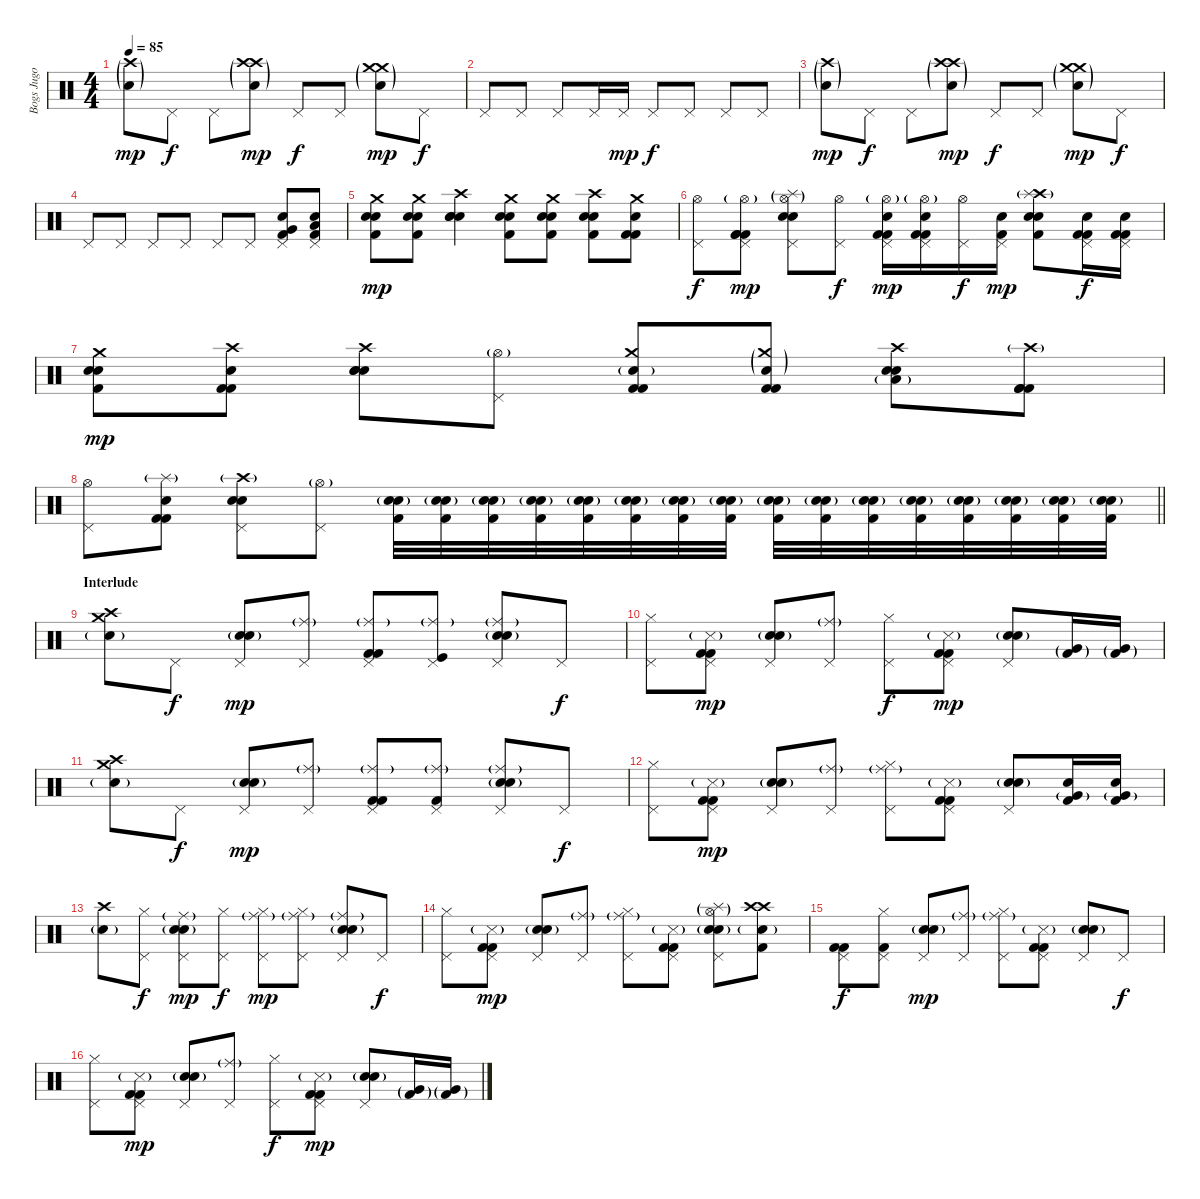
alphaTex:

\track ("Bogs Jugo" "Bogs Jugo") {instrument percussion}
\staff {score}
\articulation defaults
\ts (4 4)
\tempo 85
\clef neutral
\ks c
("Crash high (hit)"{g} "Electric Snare (hit)"{g}).8{dy mp} "Pedal Hi-Hat (hit)".8{dy f} "Pedal Hi-Hat (hit)".8 ("Crash high (hit)"{g} "Electric Snare (hit)"{g} "Crash high (hit)"{g}).8{dy mp} "Pedal Hi-Hat (hit)".8{dy f} "Pedal Hi-Hat (hit)".8 ("Crash medium (hit)"{g} "Electric Snare (hit)"{g} "Crash medium (hit)"{g}).8{dy mp} "Pedal Hi-Hat (hit)".8{dy f} |
"Pedal Hi-Hat (hit)".8 "Pedal Hi-Hat (hit)".8 "Pedal Hi-Hat (hit)".8 "Pedal Hi-Hat (hit)".16 "Pedal Hi-Hat (hit)".16{dy mp} "Pedal Hi-Hat (hit)".8{dy f} "Pedal Hi-Hat (hit)".8 "Pedal Hi-Hat (hit)".8 "Pedal Hi-Hat (hit)".8 |
("Crash high (hit)"{g} "Electric Snare (hit)"{g}).8{dy mp} "Pedal Hi-Hat (hit)".8{dy f} "Pedal Hi-Hat (hit)".8 ("Crash high (hit)"{g} "Electric Snare (hit)"{g} "Crash high (hit)"{g}).8{dy mp} "Pedal Hi-Hat (hit)".8{dy f} "Pedal Hi-Hat (hit)".8 ("Crash medium (hit)"{g} "Electric Snare (hit)"{g} "Crash medium (hit)"{g}).8{dy mp} "Pedal Hi-Hat (hit)".8{dy f} |
"Pedal Hi-Hat (hit)".8 "Pedal Hi-Hat (hit)".8 "Pedal Hi-Hat (hit)".8 "Pedal Hi-Hat (hit)".8 "Pedal Hi-Hat (hit)".8 "Pedal Hi-Hat (hit)".8 ("Pedal Hi-Hat (hit)" "Electric Snare (hit)" "Very Low Tom (hit)" "Kick (hit) 2").8 ("Pedal Hi-Hat (hit)" "Electric Snare (hit)" "Low Floor Tom (hit)" "Kick (hit) 2").8 |
("Crash medium (hit)" "Electric Snare (hit)" "Snare (hit) 2" "Kick (hit) 2").8{dy mp} ("Crash medium (hit)" "Electric Snare (hit)" "Snare (hit) 2" "Kick (hit) 2").8 ("Crash high (hit)" "Electric Snare (hit)" "Snare (hit) 2" "Snare (hit) 2").4 ("Crash medium (hit)" "Electric Snare (hit)" "Snare (hit) 2" "Kick (hit) 2").8 ("Crash medium (hit)" "Electric Snare (hit)" "Snare (hit) 2" "Kick (hit) 2").8 ("Crash high (hit)" "Electric Snare (hit)" "Snare (hit) 2" "Kick (hit) 2").8 ("Crash medium (hit)" "Kick (hit) 2" "Kick (hit) 2" "Electric Snare (hit)").8 |
("Pedal Hi-Hat (hit)" "Hi-Hat (open)").8{dy f} ("Pedal Hi-Hat (hit)" "Hi-Hat (open)"{g} "Kick (hit) 2" "Kick (hit) 2" "Kick (hit) 2").8{dy mp} ("Pedal Hi-Hat (hit)" "Hi-Hat (open)"{g} "Electric Snare (hit)" "Snare (hit) 2" "Splash (hit)"{g}).8 ("Pedal Hi-Hat (hit)" "Hi-Hat (open)").8{dy f} ("Pedal Hi-Hat (hit)" "Hi-Hat (open)"{g} "Kick (hit) 2" "Kick (hit) 2" "Electric Snare (hit)").16{dy mp} ("Pedal Hi-Hat (hit)" "Hi-Hat (open)"{g} "Kick (hit) 2" "Kick (hit) 2" "Electric Snare (hit)").16 ("Pedal Hi-Hat (hit)" "Hi-Hat (open)").16{dy f} ("Pedal Hi-Hat (hit)" "Electric Snare (hit)" "Kick (hit) 2").16{dy mp} ("Crash high (hit)" "Electric Snare (hit)" "Snare (hit) 2" "Kick (hit) 2" "Splash (hit)"{g}).8 ("Pedal Hi-Hat (hit)" "Electric Snare (hit)" "Kick (hit) 2" "Kick (hit) 2").16{dy f} ("Pedal Hi-Hat (hit)" "Electric Snare (hit)" "Kick (hit) 2" "Kick (hit) 2").16 |
("Crash medium (hit)" "Electric Snare (hit)" "Snare (hit) 2" "Kick (hit) 2").8{dy mp} ("Crash high (hit)" "Kick (hit) 2" "Kick (hit) 2" "Electric Snare (hit)").8 ("Crash high (hit)" "Electric Snare (hit)" "Snare (hit) 2" "Snare (hit) 2").8 ("Pedal Hi-Hat (hit)" "Hi-Hat (open)"{g}).8 ("Crash medium (hit)" "Kick (hit) 2" "Kick (hit) 2" "Electric Snare (hit)"{g}).8 ("Crash medium (hit)"{g} "Kick (hit) 2" "Kick (hit) 2" "Electric Snare (hit)"{g}).8 ("Crash high (hit)" "Electric Snare (hit)" "Electric Snare (hit)" "Low Tom (hit)"{g}).8 ("Kick (hit) 2" "Kick (hit) 2" "Kick (hit) 2" "Crash high (hit)"{g}).8 |
\barLineRight lightlight
("Pedal Hi-Hat (hit)" "Hi-Hat (open)").8 ("Electric Snare (hit)" "Kick (hit) 2" "Kick (hit) 2" "Splash (hit)"{g}).8 ("Pedal Hi-Hat (hit)" "Electric Snare (hit)" "Snare (hit) 2" "Crash high (hit)"{g}).8 ("Pedal Hi-Hat (hit)" "Hi-Hat (open)"{g}).8 ("Electric Snare (hit)" "Snare (hit) 2"{g} "Kick (hit) 2").32 ("Electric Snare (hit)" "Snare (hit) 2"{g} "Kick (hit) 2").32 ("Electric Snare (hit)" "Snare (hit) 2"{g} "Kick (hit) 2").32 ("Electric Snare (hit)" "Snare (hit) 2"{g} "Kick (hit) 2").32 ("Electric Snare (hit)" "Snare (hit) 2"{g} "Kick (hit) 2").32 ("Electric Snare (hit)" "Snare (hit) 2"{g} "Kick (hit) 2").32 ("Electric Snare (hit)" "Snare (hit) 2"{g} "Kick (hit) 2").32 ("Electric Snare (hit)" "Snare (hit) 2"{g} "Kick (hit) 2").32 ("Electric Snare (hit)" "Snare (hit) 2"{g} "Kick (hit) 2").32 ("Electric Snare (hit)" "Snare (hit) 2"{g} "Kick (hit) 2").32 ("Electric Snare (hit)" "Snare (hit) 2"{g} "Kick (hit) 2").32 ("Electric Snare (hit)" "Snare (hit) 2"{g} "Kick (hit) 2").32 ("Electric Snare (hit)" "Snare (hit) 2"{g} "Kick (hit) 2").32 ("Electric Snare (hit)" "Snare (hit) 2"{g} "Kick (hit) 2").32 ("Electric Snare (hit)" "Snare (hit) 2"{g} "Kick (hit) 2").32 ("Electric Snare (hit)" "Snare (hit) 2"{g} "Kick (hit) 2").32 |
\section ("" "Interlude")
("Crash medium (hit)" "Crash high (hit)" "Electric Snare (hit)"{g}).8 "Pedal Hi-Hat (hit)".8{dy f} ("Pedal Hi-Hat (hit)" "Electric Snare (hit)" "Snare (hit) 2"{g}).8{dy mp} ("Pedal Hi-Hat (hit)" "Ride (middle)"{g}).8 ("Pedal Hi-Hat (hit)" "Kick (hit) 2" "Kick (hit) 2" "Ride (middle)"{g}).8 ("Pedal Hi-Hat (hit)" "Kick (hit)" "Ride (middle)"{g}).8 ("Pedal Hi-Hat (hit)" "Electric Snare (hit)" "Snare (hit) 2"{g} "Ride (middle)"{g}).8 "Pedal Hi-Hat (hit)".8{dy f} |
("Pedal Hi-Hat (hit)" "Hi-Hat (closed)").8 ("Pedal Hi-Hat (hit)" "Kick (hit) 2" "Kick (hit) 2" "Snare (side stick) 3"{g}).8{dy mp} ("Pedal Hi-Hat (hit)" "Electric Snare (hit)" "Snare (hit) 2"{g}).8 ("Pedal Hi-Hat (hit)" "Ride (middle)"{g}).8 ("Pedal Hi-Hat (hit)" "Hi-Hat (closed)").8{dy f} ("Pedal Hi-Hat (hit)" "Kick (hit) 2" "Kick (hit) 2" "Snare (side stick) 3"{g}).8{dy mp} ("Pedal Hi-Hat (hit)" "Electric Snare (hit)" "Snare (hit) 2"{g}).8 ("Kick (hit) 2"{g} "Very Low Tom (hit)"{g}).16 ("Kick (hit) 2"{g} "Very Low Tom (hit)"{g}).16 |
("Crash medium (hit)" "Crash high (hit)" "Electric Snare (hit)"{g}).8 "Pedal Hi-Hat (hit)".8{dy f} ("Pedal Hi-Hat (hit)" "Electric Snare (hit)" "Snare (hit) 2"{g}).8{dy mp} ("Pedal Hi-Hat (hit)" "Ride (middle)"{g}).8 ("Pedal Hi-Hat (hit)" "Kick (hit) 2" "Kick (hit) 2" "Ride (middle)"{g}).8 ("Pedal Hi-Hat (hit)" "Kick (hit) 2" "Ride (middle)"{g}).8 ("Pedal Hi-Hat (hit)" "Electric Snare (hit)" "Snare (hit) 2"{g} "Ride (middle)"{g}).8 "Pedal Hi-Hat (hit)".8{dy f} |
("Pedal Hi-Hat (hit)" "Hi-Hat (closed)").8 ("Pedal Hi-Hat (hit)" "Kick (hit) 2" "Kick (hit) 2" "Snare (side stick) 3"{g}).8{dy mp} ("Pedal Hi-Hat (hit)" "Electric Snare (hit)" "Snare (hit) 2"{g}).8 ("Pedal Hi-Hat (hit)" "Ride (middle)"{g}).8 ("Pedal Hi-Hat (hit)" "Hi-Hat (closed)" "Ride (middle)"{g}).8 ("Pedal Hi-Hat (hit)" "Kick (hit) 2" "Kick (hit) 2" "Snare (side stick) 3"{g}).8 ("Pedal Hi-Hat (hit)" "Electric Snare (hit)" "Snare (hit) 2"{g}).8 ("Kick (hit) 2" "Electric Snare (hit)" "Very Low Tom (hit)"{g}).16 ("Kick (hit) 2" "Electric Snare (hit)" "Very Low Tom (hit)"{g}).16 |
("Crash high (hit)" "Electric Snare (hit)"{g}).8 ("Pedal Hi-Hat (hit)" "Hi-Hat (closed)").8{dy f} ("Pedal Hi-Hat (hit)" "Electric Snare (hit)" "Snare (hit) 2"{g} "Ride (middle)"{g}).8{dy mp} ("Pedal Hi-Hat (hit)" "Hi-Hat (closed)").8{dy f} ("Pedal Hi-Hat (hit)" "Hi-Hat (closed)" "Ride (middle)"{g}).8{dy mp} ("Pedal Hi-Hat (hit)" "Hi-Hat (closed)" "Ride (middle)"{g}).8 ("Pedal Hi-Hat (hit)" "Electric Snare (hit)" "Snare (hit) 2"{g} "Ride (middle)"{g}).8 "Pedal Hi-Hat (hit)".8{dy f} |
("Pedal Hi-Hat (hit)" "Hi-Hat (closed)").8 ("Pedal Hi-Hat (hit)" "Kick (hit) 2" "Kick (hit) 2" "Snare (side stick) 3"{g}).8{dy mp} ("Pedal Hi-Hat (hit)" "Electric Snare (hit)" "Snare (hit) 2"{g}).8 ("Pedal Hi-Hat (hit)" "Ride (middle)"{g}).8 ("Pedal Hi-Hat (hit)" "Hi-Hat (closed)" "Ride (middle)"{g}).8 ("Pedal Hi-Hat (hit)" "Kick (hit) 2" "Kick (hit) 2" "Snare (side stick) 3"{g}).8 ("Pedal Hi-Hat (hit)" "Electric Snare (hit)" "Snare (hit) 2"{g} "Splash (hit)"{g} "Hi-Hat (open)"{g}).8 ("Crash high (hit)" "Crash high (hit)" "Electric Snare (hit)"{g} "Kick (hit) 2").8 |
("Pedal Hi-Hat (hit)" "Kick (hit) 2" "Kick (hit) 2").8{dy f} ("Pedal Hi-Hat (hit)" "Hi-Hat (closed)" "Kick (hit) 2").8 ("Pedal Hi-Hat (hit)" "Electric Snare (hit)" "Snare (hit) 2"{g}).8{dy mp} ("Pedal Hi-Hat (hit)" "Ride (middle)"{g}).8 ("Pedal Hi-Hat (hit)" "Hi-Hat (closed)" "Ride (middle)"{g}).8 ("Pedal Hi-Hat (hit)" "Kick (hit) 2" "Kick (hit) 2" "Snare (side stick) 3"{g}).8 ("Pedal Hi-Hat (hit)" "Electric Snare (hit)" "Snare (hit) 2"{g}).8 "Pedal Hi-Hat (hit)".8{dy f} |
("Pedal Hi-Hat (hit)" "Hi-Hat (closed)").8 ("Pedal Hi-Hat (hit)" "Kick (hit) 2" "Kick (hit) 2" "Snare (side stick) 3"{g}).8{dy mp} ("Pedal Hi-Hat (hit)" "Electric Snare (hit)" "Snare (hit) 2"{g}).8 ("Pedal Hi-Hat (hit)" "Ride (middle)"{g}).8 ("Pedal Hi-Hat (hit)" "Hi-Hat (closed)").8{dy f} ("Pedal Hi-Hat (hit)" "Kick (hit) 2" "Kick (hit) 2" "Snare (side stick) 3"{g}).8{dy mp} ("Pedal Hi-Hat (hit)" "Electric Snare (hit)" "Snare (hit) 2"{g}).8 ("Kick (hit) 2"{g} "Very Low Tom (hit)"{g}).16 ("Kick (hit) 2"{g} "Very Low Tom (hit)"{g}).16
